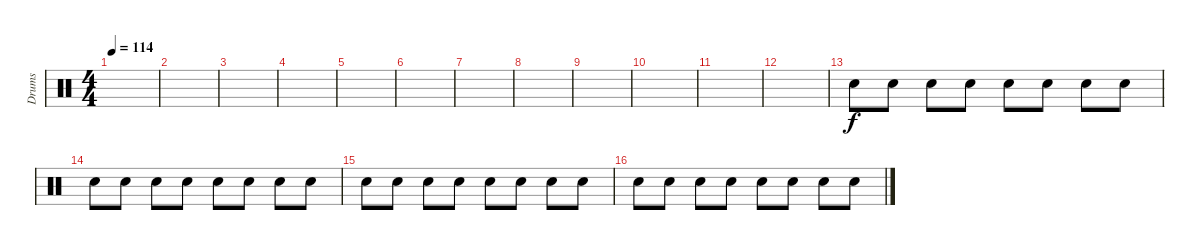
\track ("Drums" "Drums") {instrument percussion}
\staff {score}
\articulation defaults
\ts (4 4)
\tempo 114
\clef neutral
\ks c
|
|
|
|
|
|
|
|
|
|
|
|
"Electric Snare (hit)".8{dy f volume 3} "Electric Snare (hit)".8 "Electric Snare (hit)".8 "Electric Snare (hit)".8 "Electric Snare (hit)".8 "Electric Snare (hit)".8 "Electric Snare (hit)".8 "Electric Snare (hit)".8 |
"Electric Snare (hit)".8 "Electric Snare (hit)".8 "Electric Snare (hit)".8 "Electric Snare (hit)".8 "Electric Snare (hit)".8 "Electric Snare (hit)".8 "Electric Snare (hit)".8 "Electric Snare (hit)".8 |
"Electric Snare (hit)".8 "Electric Snare (hit)".8 "Electric Snare (hit)".8 "Electric Snare (hit)".8 "Electric Snare (hit)".8 "Electric Snare (hit)".8 "Electric Snare (hit)".8 "Electric Snare (hit)".8 |
"Electric Snare (hit)".8 "Electric Snare (hit)".8 "Electric Snare (hit)".8 "Electric Snare (hit)".8 "Electric Snare (hit)".8 "Electric Snare (hit)".8 "Electric Snare (hit)".8 "Electric Snare (hit)".8
